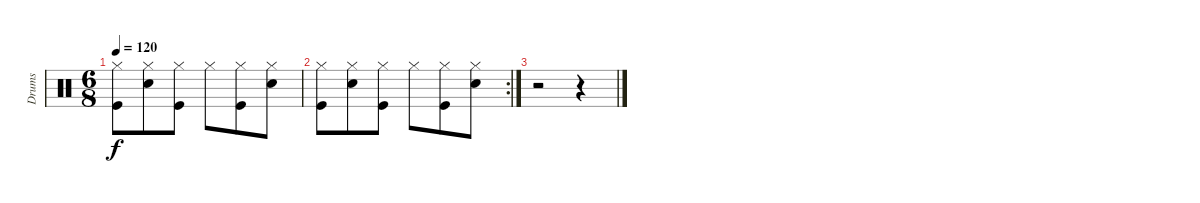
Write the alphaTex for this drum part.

\track ("Drums" "Drums") {instrument percussion}
\staff {score}
\articulation defaults
\ts (6 8)
\tempo 120
\clef neutral
\ks c
("Hi-Hat (closed)" "Kick (hit)").8{dy f} ("Hi-Hat (closed)" "Electric Snare (hit)").8 ("Hi-Hat (closed)" "Kick (hit)").8 "Hi-Hat (closed)".8 ("Hi-Hat (closed)" "Kick (hit)").8 ("Hi-Hat (closed)" "Electric Snare (hit)").8 |
\rc 2
("Hi-Hat (closed)" "Kick (hit)").8 ("Hi-Hat (closed)" "Electric Snare (hit)").8 ("Hi-Hat (closed)" "Kick (hit)").8 "Hi-Hat (closed)".8 ("Hi-Hat (closed)" "Kick (hit)").8 ("Hi-Hat (closed)" "Electric Snare (hit)").8 |
r.2 r.4
